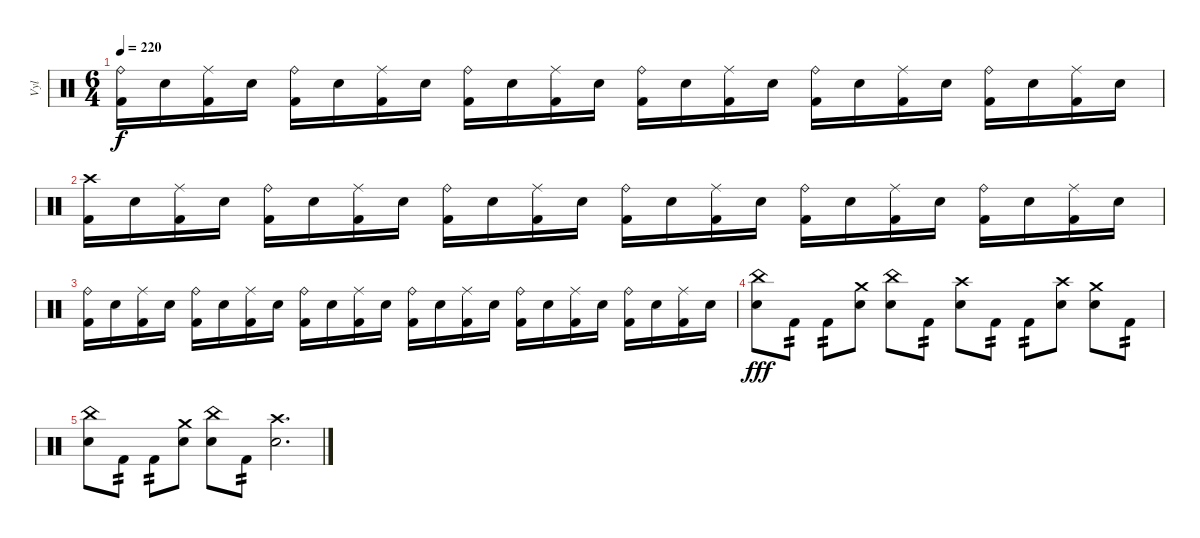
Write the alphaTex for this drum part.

\track ("Vyl" "Vyl") {instrument percussion}
\staff {score}
\articulation defaults
\ts (6 4)
\tempo 220
\clef neutral
\ks c
("Ride (bell)" "Kick (hit) 2").16{dy f} "Snare (hit) 2".16 ("Ride (middle)" "Kick (hit) 2").16 "Snare (hit) 2".16 ("Ride (bell)" "Kick (hit) 2").16 "Snare (hit) 2".16 ("Ride (middle)" "Kick (hit) 2").16 "Snare (hit) 2".16 ("Ride (bell)" "Kick (hit) 2").16 "Snare (hit) 2".16 ("Ride (middle)" "Kick (hit) 2").16 "Snare (hit) 2".16 ("Ride (bell)" "Kick (hit) 2").16 "Snare (hit) 2".16 ("Ride (middle)" "Kick (hit) 2").16 "Snare (hit) 2".16 ("Ride (bell)" "Kick (hit) 2").16 "Snare (hit) 2".16 ("Ride (middle)" "Kick (hit) 2").16 "Snare (hit) 2".16 ("Ride (bell)" "Kick (hit) 2").16 "Snare (hit) 2".16 ("Ride (middle)" "Kick (hit) 2").16 "Snare (hit) 2".16 |
("Crash high (hit)" "Kick (hit) 2").16 "Snare (hit) 2".16 ("Ride (middle)" "Kick (hit) 2").16 "Snare (hit) 2".16 ("Ride (bell)" "Kick (hit) 2").16 "Snare (hit) 2".16 ("Ride (middle)" "Kick (hit) 2").16 "Snare (hit) 2".16 ("Ride (bell)" "Kick (hit) 2").16 "Snare (hit) 2".16 ("Ride (middle)" "Kick (hit) 2").16 "Snare (hit) 2".16 ("Ride (bell)" "Kick (hit) 2").16 "Snare (hit) 2".16 ("Ride (middle)" "Kick (hit) 2").16 "Snare (hit) 2".16 ("Ride (bell)" "Kick (hit) 2").16 "Snare (hit) 2".16 ("Ride (middle)" "Kick (hit) 2").16 "Snare (hit) 2".16 ("Ride (bell)" "Kick (hit) 2").16 "Snare (hit) 2".16 ("Ride (middle)" "Kick (hit) 2").16 "Snare (hit) 2".16 |
("Ride (bell)" "Kick (hit) 2").16 "Snare (hit) 2".16 ("Ride (middle)" "Kick (hit) 2").16 "Snare (hit) 2".16 ("Ride (bell)" "Kick (hit) 2").16 "Snare (hit) 2".16 ("Ride (middle)" "Kick (hit) 2").16 "Snare (hit) 2".16 ("Ride (bell)" "Kick (hit) 2").16 "Snare (hit) 2".16 ("Ride (middle)" "Kick (hit) 2").16 "Snare (hit) 2".16 ("Ride (bell)" "Kick (hit) 2").16 "Snare (hit) 2".16 ("Ride (middle)" "Kick (hit) 2").16 "Snare (hit) 2".16 ("Ride (bell)" "Kick (hit) 2").16 "Snare (hit) 2".16 ("Ride (middle)" "Kick (hit) 2").16 "Snare (hit) 2".16 ("Ride (bell)" "Kick (hit) 2").16 "Snare (hit) 2".16 ("Ride (middle)" "Kick (hit) 2").16 "Snare (hit) 2".16 |
("China (hit)" "Snare (hit) 2").8{dy fff} "Kick (hit) 2".8{tp 2} "Kick (hit) 2".8{tp 2} ("Crash medium (hit)" "Snare (hit) 2").8 ("China (hit)" "Snare (hit) 2").8 "Kick (hit) 2".8{tp 2} ("Crash high (hit)" "Snare (hit) 2").8 "Kick (hit) 2".8{tp 2} "Kick (hit) 2".8{tp 2} ("Crash high (hit)" "Snare (hit) 2").8 ("Crash medium (hit)" "Snare (hit) 2").8 "Kick (hit) 2".8{tp 2} |
("China (hit)" "Snare (hit) 2").8 "Kick (hit) 2".8{tp 2} "Kick (hit) 2".8{tp 2} ("Crash medium (hit)" "Snare (hit) 2").8 ("China (hit)" "Snare (hit) 2").8 "Kick (hit) 2".8{tp 2} ("Crash high (hit)" "Snare (hit) 2").2{d}
